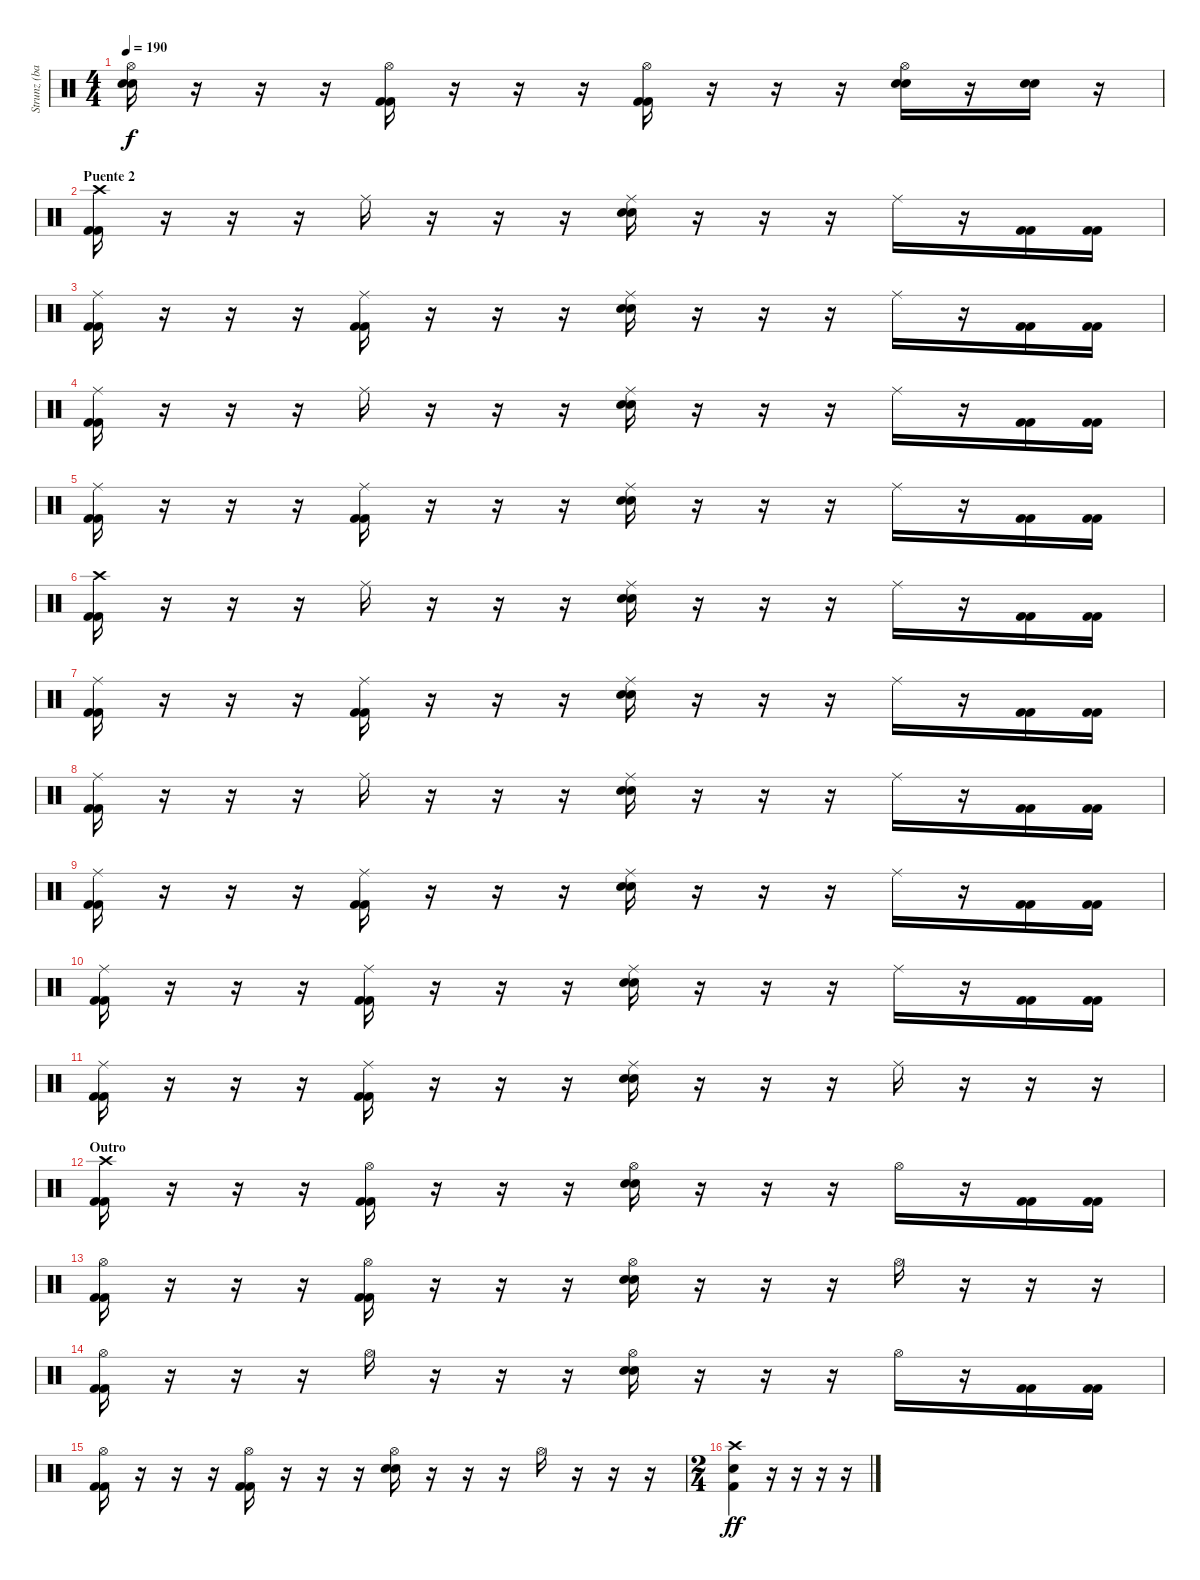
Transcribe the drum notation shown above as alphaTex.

\track ("Strunz (bateria)" "Strunz (ba") {instrument percussion}
\staff {score}
\articulation defaults
\ts (4 4)
\tempo 190
\clef neutral
\ks c
("Hi-Hat (open)" "Snare (hit) 2" "Snare (hit) 2").16{dy f} r.16 r.16 r.16 ("Hi-Hat (open)" "Kick (hit) 2" "Kick (hit) 2").16 r.16 r.16 r.16 ("Hi-Hat (open)" "Kick (hit) 2" "Kick (hit) 2").16 r.16 r.16 r.16 ("Hi-Hat (open)" "Snare (hit) 2" "Snare (hit) 2").16 r.16 ("Snare (hit) 2" "Snare (hit) 2").16 r.16 |
\section ("" "Puente 2")
("Crash high (hit)" "Kick (hit) 2" "Kick (hit) 2").16 r.16 r.16 r.16 "Ride (middle)".16 r.16 r.16 r.16 ("Ride (middle)" "Snare (hit) 2" "Snare (hit) 2").16 r.16 r.16 r.16 "Ride (middle)".16 r.16 ("Kick (hit) 2" "Kick (hit) 2").16 ("Kick (hit) 2" "Kick (hit) 2").16 |
("Ride (middle)" "Kick (hit) 2" "Kick (hit) 2").16 r.16 r.16 r.16 ("Ride (middle)" "Kick (hit) 2" "Kick (hit) 2").16 r.16 r.16 r.16 ("Ride (middle)" "Snare (hit) 2" "Snare (hit) 2").16 r.16 r.16 r.16 "Ride (middle)".16 r.16 ("Kick (hit) 2" "Kick (hit) 2").16 ("Kick (hit) 2" "Kick (hit) 2").16 |
("Ride (middle)" "Kick (hit) 2" "Kick (hit) 2").16 r.16 r.16 r.16 "Ride (middle)".16 r.16 r.16 r.16 ("Ride (middle)" "Snare (hit) 2" "Snare (hit) 2").16 r.16 r.16 r.16 "Ride (middle)".16 r.16 ("Kick (hit) 2" "Kick (hit) 2").16 ("Kick (hit) 2" "Kick (hit) 2").16 |
("Ride (middle)" "Kick (hit) 2" "Kick (hit) 2").16 r.16 r.16 r.16 ("Ride (middle)" "Kick (hit) 2" "Kick (hit) 2").16 r.16 r.16 r.16 ("Ride (middle)" "Snare (hit) 2" "Snare (hit) 2").16 r.16 r.16 r.16 "Ride (middle)".16 r.16 ("Kick (hit) 2" "Kick (hit) 2").16 ("Kick (hit) 2" "Kick (hit) 2").16 |
("Crash high (hit)" "Kick (hit) 2" "Kick (hit) 2").16 r.16 r.16 r.16 "Ride (middle)".16 r.16 r.16 r.16 ("Ride (middle)" "Snare (hit) 2" "Snare (hit) 2").16 r.16 r.16 r.16 "Ride (middle)".16 r.16 ("Kick (hit) 2" "Kick (hit) 2").16 ("Kick (hit) 2" "Kick (hit) 2").16 |
("Ride (middle)" "Kick (hit) 2" "Kick (hit) 2").16 r.16 r.16 r.16 ("Ride (middle)" "Kick (hit) 2" "Kick (hit) 2").16 r.16 r.16 r.16 ("Ride (middle)" "Snare (hit) 2" "Snare (hit) 2").16 r.16 r.16 r.16 "Ride (middle)".16 r.16 ("Kick (hit) 2" "Kick (hit) 2").16 ("Kick (hit) 2" "Kick (hit) 2").16 |
("Ride (middle)" "Kick (hit) 2" "Kick (hit) 2").16 r.16 r.16 r.16 "Ride (middle)".16 r.16 r.16 r.16 ("Ride (middle)" "Snare (hit) 2" "Snare (hit) 2").16 r.16 r.16 r.16 "Ride (middle)".16 r.16 ("Kick (hit) 2" "Kick (hit) 2").16 ("Kick (hit) 2" "Kick (hit) 2").16 |
("Ride (middle)" "Kick (hit) 2" "Kick (hit) 2").16 r.16 r.16 r.16 ("Ride (middle)" "Kick (hit) 2" "Kick (hit) 2").16 r.16 r.16 r.16 ("Ride (middle)" "Snare (hit) 2" "Snare (hit) 2").16 r.16 r.16 r.16 "Ride (middle)".16 r.16 ("Kick (hit) 2" "Kick (hit) 2").16 ("Kick (hit) 2" "Kick (hit) 2").16 |
("Ride (middle)" "Kick (hit) 2" "Kick (hit) 2").16 r.16 r.16 r.16 ("Ride (middle)" "Kick (hit) 2" "Kick (hit) 2").16 r.16 r.16 r.16 ("Ride (middle)" "Snare (hit) 2" "Snare (hit) 2").16 r.16 r.16 r.16 "Ride (middle)".16 r.16 ("Kick (hit) 2" "Kick (hit) 2").16 ("Kick (hit) 2" "Kick (hit) 2").16 |
("Ride (middle)" "Kick (hit) 2" "Kick (hit) 2").16 r.16 r.16 r.16 ("Ride (middle)" "Kick (hit) 2" "Kick (hit) 2").16 r.16 r.16 r.16 ("Ride (middle)" "Snare (hit) 2" "Snare (hit) 2").16 r.16 r.16 r.16 "Ride (middle)".16 r.16 r.16 r.16 |
\section ("" "Outro")
("Crash high (hit)" "Kick (hit) 2" "Kick (hit) 2").16 r.16 r.16 r.16 ("Hi-Hat (open)" "Kick (hit) 2" "Kick (hit) 2").16 r.16 r.16 r.16 ("Hi-Hat (open)" "Snare (hit) 2" "Snare (hit) 2").16 r.16 r.16 r.16 "Hi-Hat (open)".16 r.16 ("Kick (hit) 2" "Kick (hit) 2").16 ("Kick (hit) 2" "Kick (hit) 2").16 |
("Hi-Hat (open)" "Kick (hit) 2" "Kick (hit) 2").16 r.16 r.16 r.16 ("Hi-Hat (open)" "Kick (hit) 2" "Kick (hit) 2").16 r.16 r.16 r.16 ("Hi-Hat (open)" "Snare (hit) 2" "Snare (hit) 2").16 r.16 r.16 r.16 "Hi-Hat (open)".16 r.16 r.16 r.16 |
("Hi-Hat (open)" "Kick (hit) 2" "Kick (hit) 2").16 r.16 r.16 r.16 "Hi-Hat (open)".16 r.16 r.16 r.16 ("Hi-Hat (open)" "Snare (hit) 2" "Snare (hit) 2").16 r.16 r.16 r.16 "Hi-Hat (open)".16 r.16 ("Kick (hit) 2" "Kick (hit) 2").16 ("Kick (hit) 2" "Kick (hit) 2").16 |
("Hi-Hat (open)" "Kick (hit) 2" "Kick (hit) 2").16 r.16 r.16 r.16 ("Hi-Hat (open)" "Kick (hit) 2" "Kick (hit) 2").16 r.16 r.16 r.16 ("Hi-Hat (open)" "Snare (hit) 2" "Snare (hit) 2").16 r.16 r.16 r.16 "Hi-Hat (open)".16 r.16 r.16 r.16 |
\ts (2 4)
("Crash high (hit)" "Kick (hit) 2" "Snare (hit) 2").4{dy ff} r.16 r.16 r.16 r.16
